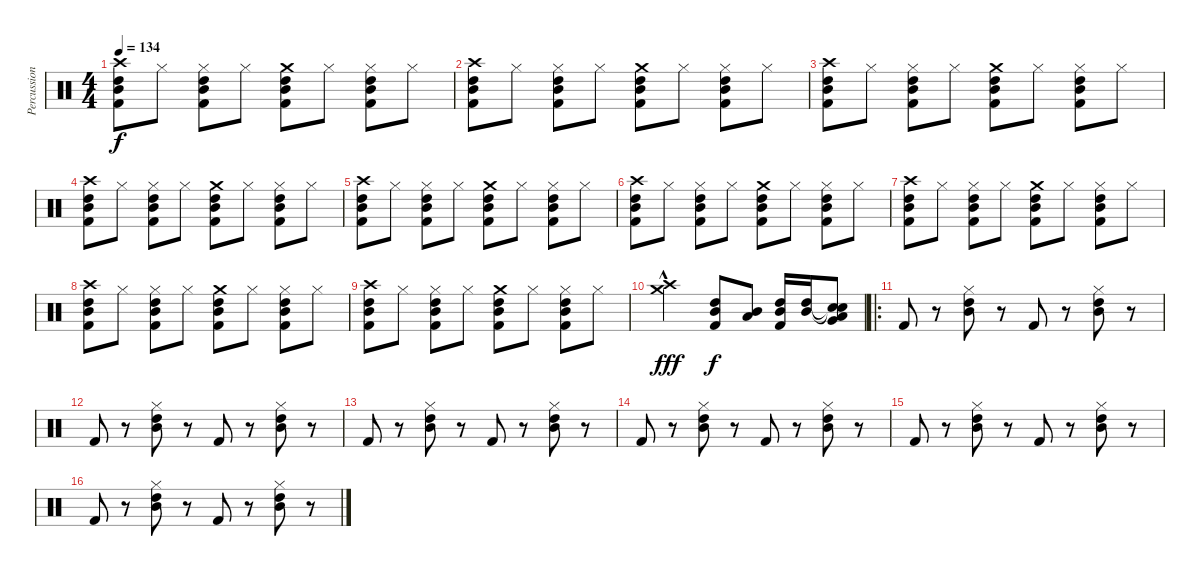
\track ("Percussion" "Percussion") {instrument percussion}
\staff {score}
\articulation defaults
\ts (4 4)
\tempo 134
\clef neutral
\ks c
("Crash high (hit)" "Mid Tom (hit)" "High Tom (hit)" "Kick (hit) 2").8{dy f} "Hi-Hat (closed)".8 ("Hi-Hat (closed)" "Mid Tom (hit)" "High Tom (hit)" "Kick (hit) 2").8 "Hi-Hat (closed)".8 ("Crash medium (hit)" "Mid Tom (hit)" "High Tom (hit)" "Kick (hit) 2").8 "Hi-Hat (closed)".8 ("Hi-Hat (closed)" "Mid Tom (hit)" "High Tom (hit)" "Kick (hit) 2").8 "Hi-Hat (closed)".8 |
("Crash high (hit)" "Mid Tom (hit)" "High Tom (hit)" "Kick (hit) 2").8 "Hi-Hat (closed)".8 ("Hi-Hat (closed)" "Mid Tom (hit)" "High Tom (hit)" "Kick (hit) 2").8 "Hi-Hat (closed)".8 ("Crash medium (hit)" "Mid Tom (hit)" "High Tom (hit)" "Kick (hit) 2").8 "Hi-Hat (closed)".8 ("Hi-Hat (closed)" "Mid Tom (hit)" "High Tom (hit)" "Kick (hit) 2").8 "Hi-Hat (closed)".8 |
("Crash high (hit)" "Mid Tom (hit)" "High Tom (hit)" "Kick (hit) 2").8 "Hi-Hat (closed)".8 ("Hi-Hat (closed)" "Mid Tom (hit)" "High Tom (hit)" "Kick (hit) 2").8 "Hi-Hat (closed)".8 ("Crash medium (hit)" "Mid Tom (hit)" "High Tom (hit)" "Kick (hit) 2").8 "Hi-Hat (closed)".8 ("Hi-Hat (closed)" "Mid Tom (hit)" "High Tom (hit)" "Kick (hit) 2").8 "Hi-Hat (closed)".8 |
("Crash high (hit)" "Mid Tom (hit)" "High Tom (hit)" "Kick (hit) 2").8 "Hi-Hat (closed)".8 ("Hi-Hat (closed)" "Mid Tom (hit)" "High Tom (hit)" "Kick (hit) 2").8 "Hi-Hat (closed)".8 ("Crash medium (hit)" "Mid Tom (hit)" "High Tom (hit)" "Kick (hit) 2").8 "Hi-Hat (closed)".8 ("Hi-Hat (closed)" "Mid Tom (hit)" "High Tom (hit)" "Kick (hit) 2").8 "Hi-Hat (closed)".8 |
("Crash high (hit)" "Mid Tom (hit)" "High Tom (hit)" "Kick (hit) 2").8 "Hi-Hat (closed)".8 ("Hi-Hat (closed)" "Mid Tom (hit)" "High Tom (hit)" "Kick (hit) 2").8 "Hi-Hat (closed)".8 ("Crash medium (hit)" "Mid Tom (hit)" "High Tom (hit)" "Kick (hit) 2").8 "Hi-Hat (closed)".8 ("Hi-Hat (closed)" "Mid Tom (hit)" "High Tom (hit)" "Kick (hit) 2").8 "Hi-Hat (closed)".8 |
("Crash high (hit)" "Mid Tom (hit)" "High Tom (hit)" "Kick (hit) 2").8 "Hi-Hat (closed)".8 ("Hi-Hat (closed)" "Mid Tom (hit)" "High Tom (hit)" "Kick (hit) 2").8 "Hi-Hat (closed)".8 ("Crash medium (hit)" "Mid Tom (hit)" "High Tom (hit)" "Kick (hit) 2").8 "Hi-Hat (closed)".8 ("Hi-Hat (closed)" "Mid Tom (hit)" "High Tom (hit)" "Kick (hit) 2").8 "Hi-Hat (closed)".8 |
("Crash high (hit)" "Mid Tom (hit)" "High Tom (hit)" "Kick (hit) 2").8 "Hi-Hat (closed)".8 ("Hi-Hat (closed)" "Mid Tom (hit)" "High Tom (hit)" "Kick (hit) 2").8 "Hi-Hat (closed)".8 ("Crash medium (hit)" "Mid Tom (hit)" "High Tom (hit)" "Kick (hit) 2").8 "Hi-Hat (closed)".8 ("Hi-Hat (closed)" "Mid Tom (hit)" "High Tom (hit)" "Kick (hit) 2").8 "Hi-Hat (closed)".8 |
("Crash high (hit)" "Mid Tom (hit)" "High Tom (hit)" "Kick (hit) 2").8 "Hi-Hat (closed)".8 ("Hi-Hat (closed)" "Mid Tom (hit)" "High Tom (hit)" "Kick (hit) 2").8 "Hi-Hat (closed)".8 ("Crash medium (hit)" "Mid Tom (hit)" "High Tom (hit)" "Kick (hit) 2").8 "Hi-Hat (closed)".8 ("Hi-Hat (closed)" "Mid Tom (hit)" "High Tom (hit)" "Kick (hit) 2").8 "Hi-Hat (closed)".8 |
("Crash high (hit)" "Mid Tom (hit)" "High Tom (hit)" "Kick (hit) 2").8 "Hi-Hat (closed)".8 ("Hi-Hat (closed)" "Mid Tom (hit)" "High Tom (hit)" "Kick (hit) 2").8 "Hi-Hat (closed)".8 ("Crash medium (hit)" "Mid Tom (hit)" "High Tom (hit)" "Kick (hit) 2").8 "Hi-Hat (closed)".8 ("Hi-Hat (closed)" "Mid Tom (hit)" "High Tom (hit)" "Kick (hit) 2").8 "Hi-Hat (closed)".8 |
("Crash high (hit)"{hac} "Crash medium (hit)"{hac}).2{dy fff} ("Mid Tom (hit)" "High Tom (hit)" "Kick (hit) 2").8{dy f} ("Low Tom (hit)" "Mid Tom (hit)").8 ("Mid Tom (hit)" "High Tom (hit)" "Kick (hit) 2").16 ("Mid Tom (hit)" "High Tom (hit)").16 ("Snare (hit)"{t} "Snare (hit)"{t} "Low Tom (hit)" "Very Low Tom (hit)").8 |
\ro "Kick (hit) 2".8
r.8 ("Hi-Hat (closed)" "Mid Tom (hit)" "High Tom (hit)").8 r.8 "Kick (hit) 2".8 r.8 ("Hi-Hat (closed)" "Mid Tom (hit)" "High Tom (hit)").8 r.8 |
"Kick (hit) 2".8 r.8 ("Hi-Hat (closed)" "Mid Tom (hit)" "High Tom (hit)").8 r.8 "Kick (hit) 2".8 r.8 ("Hi-Hat (closed)" "Mid Tom (hit)" "High Tom (hit)").8 r.8 |
"Kick (hit) 2".8 r.8 ("Hi-Hat (closed)" "Mid Tom (hit)" "High Tom (hit)").8 r.8 "Kick (hit) 2".8 r.8 ("Hi-Hat (closed)" "Mid Tom (hit)" "High Tom (hit)").8 r.8 |
"Kick (hit) 2".8 r.8 ("Hi-Hat (closed)" "Mid Tom (hit)" "High Tom (hit)").8 r.8 "Kick (hit) 2".8 r.8 ("Hi-Hat (closed)" "Mid Tom (hit)" "High Tom (hit)").8 r.8 |
"Kick (hit) 2".8 r.8 ("Hi-Hat (closed)" "Mid Tom (hit)" "High Tom (hit)").8 r.8 "Kick (hit) 2".8 r.8 ("Hi-Hat (closed)" "Mid Tom (hit)" "High Tom (hit)").8 r.8 |
"Kick (hit) 2".8 r.8 ("Hi-Hat (closed)" "Mid Tom (hit)" "High Tom (hit)").8 r.8 "Kick (hit) 2".8 r.8 ("Hi-Hat (closed)" "Mid Tom (hit)" "High Tom (hit)").8 r.8
